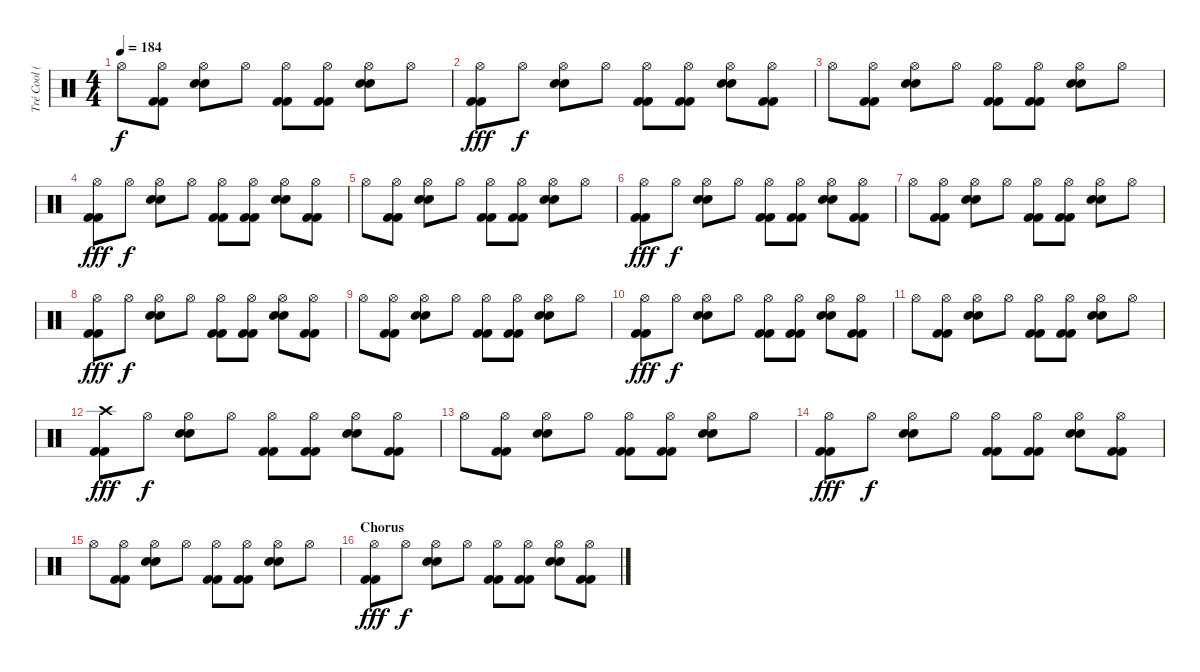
\track ("Tré Cool (Drums)" "Tré Cool (") {instrument percussion}
\staff {score}
\articulation defaults
\ts (4 4)
\tempo 184
\clef neutral
\ks c "Hi-Hat (open)".8{dy f}
("Kick (hit) 2" "Kick (hit) 2" "Hi-Hat (open)").8 ("Electric Snare (hit)" "Electric Snare (hit)" "Hi-Hat (open)").8 "Hi-Hat (open)".8 ("Kick (hit) 2" "Kick (hit) 2" "Hi-Hat (open)").8 ("Kick (hit) 2" "Kick (hit) 2" "Hi-Hat (open)").8 ("Electric Snare (hit)" "Electric Snare (hit)" "Hi-Hat (open)").8 "Hi-Hat (open)".8 |
("Kick (hit) 2" "Kick (hit) 2" "Hi-Hat (open)").8{dy fff} "Hi-Hat (open)".8{dy f} ("Electric Snare (hit)" "Electric Snare (hit)" "Hi-Hat (open)").8 "Hi-Hat (open)".8 ("Kick (hit) 2" "Kick (hit) 2" "Hi-Hat (open)").8 ("Kick (hit) 2" "Kick (hit) 2" "Hi-Hat (open)").8 ("Electric Snare (hit)" "Electric Snare (hit)" "Hi-Hat (open)").8 ("Kick (hit) 2" "Kick (hit) 2" "Hi-Hat (open)").8 |
"Hi-Hat (open)".8 ("Kick (hit) 2" "Kick (hit) 2" "Hi-Hat (open)").8 ("Electric Snare (hit)" "Electric Snare (hit)" "Hi-Hat (open)").8 "Hi-Hat (open)".8 ("Kick (hit) 2" "Kick (hit) 2" "Hi-Hat (open)").8 ("Kick (hit) 2" "Kick (hit) 2" "Hi-Hat (open)").8 ("Electric Snare (hit)" "Electric Snare (hit)" "Hi-Hat (open)").8 "Hi-Hat (open)".8 |
("Kick (hit) 2" "Kick (hit) 2" "Hi-Hat (open)").8{dy fff} "Hi-Hat (open)".8{dy f} ("Electric Snare (hit)" "Electric Snare (hit)" "Hi-Hat (open)").8 "Hi-Hat (open)".8 ("Kick (hit) 2" "Kick (hit) 2" "Hi-Hat (open)").8 ("Kick (hit) 2" "Kick (hit) 2" "Hi-Hat (open)").8 ("Electric Snare (hit)" "Electric Snare (hit)" "Hi-Hat (open)").8 ("Kick (hit) 2" "Kick (hit) 2" "Hi-Hat (open)").8 |
"Hi-Hat (open)".8 ("Kick (hit) 2" "Kick (hit) 2" "Hi-Hat (open)").8 ("Electric Snare (hit)" "Electric Snare (hit)" "Hi-Hat (open)").8 "Hi-Hat (open)".8 ("Kick (hit) 2" "Kick (hit) 2" "Hi-Hat (open)").8 ("Kick (hit) 2" "Kick (hit) 2" "Hi-Hat (open)").8 ("Electric Snare (hit)" "Electric Snare (hit)" "Hi-Hat (open)").8 "Hi-Hat (open)".8 |
("Kick (hit) 2" "Kick (hit) 2" "Hi-Hat (open)").8{dy fff} "Hi-Hat (open)".8{dy f} ("Electric Snare (hit)" "Electric Snare (hit)" "Hi-Hat (open)").8 "Hi-Hat (open)".8 ("Kick (hit) 2" "Kick (hit) 2" "Hi-Hat (open)").8 ("Kick (hit) 2" "Kick (hit) 2" "Hi-Hat (open)").8 ("Electric Snare (hit)" "Electric Snare (hit)" "Hi-Hat (open)").8 ("Kick (hit) 2" "Kick (hit) 2" "Hi-Hat (open)").8 |
"Hi-Hat (open)".8 ("Kick (hit) 2" "Kick (hit) 2" "Hi-Hat (open)").8 ("Electric Snare (hit)" "Electric Snare (hit)" "Hi-Hat (open)").8 "Hi-Hat (open)".8 ("Kick (hit) 2" "Kick (hit) 2" "Hi-Hat (open)").8 ("Kick (hit) 2" "Kick (hit) 2" "Hi-Hat (open)").8 ("Electric Snare (hit)" "Electric Snare (hit)" "Hi-Hat (open)").8 "Hi-Hat (open)".8 |
("Kick (hit) 2" "Kick (hit) 2" "Hi-Hat (open)").8{dy fff} "Hi-Hat (open)".8{dy f} ("Electric Snare (hit)" "Electric Snare (hit)" "Hi-Hat (open)").8 "Hi-Hat (open)".8 ("Kick (hit) 2" "Kick (hit) 2" "Hi-Hat (open)").8 ("Kick (hit) 2" "Kick (hit) 2" "Hi-Hat (open)").8 ("Electric Snare (hit)" "Electric Snare (hit)" "Hi-Hat (open)").8 ("Kick (hit) 2" "Kick (hit) 2" "Hi-Hat (open)").8 |
"Hi-Hat (open)".8 ("Kick (hit) 2" "Kick (hit) 2" "Hi-Hat (open)").8 ("Electric Snare (hit)" "Electric Snare (hit)" "Hi-Hat (open)").8 "Hi-Hat (open)".8 ("Kick (hit) 2" "Kick (hit) 2" "Hi-Hat (open)").8 ("Kick (hit) 2" "Kick (hit) 2" "Hi-Hat (open)").8 ("Electric Snare (hit)" "Electric Snare (hit)" "Hi-Hat (open)").8 "Hi-Hat (open)".8 |
("Kick (hit) 2" "Kick (hit) 2" "Hi-Hat (open)").8{dy fff} "Hi-Hat (open)".8{dy f} ("Electric Snare (hit)" "Electric Snare (hit)" "Hi-Hat (open)").8 "Hi-Hat (open)".8 ("Kick (hit) 2" "Kick (hit) 2" "Hi-Hat (open)").8 ("Kick (hit) 2" "Kick (hit) 2" "Hi-Hat (open)").8 ("Electric Snare (hit)" "Electric Snare (hit)" "Hi-Hat (open)").8 ("Kick (hit) 2" "Kick (hit) 2" "Hi-Hat (open)").8 |
"Hi-Hat (open)".8 ("Kick (hit) 2" "Kick (hit) 2" "Hi-Hat (open)").8 ("Electric Snare (hit)" "Electric Snare (hit)" "Hi-Hat (open)").8 "Hi-Hat (open)".8 ("Kick (hit) 2" "Kick (hit) 2" "Hi-Hat (open)").8 ("Kick (hit) 2" "Kick (hit) 2" "Hi-Hat (open)").8 ("Electric Snare (hit)" "Electric Snare (hit)" "Hi-Hat (open)").8 "Hi-Hat (open)".8 |
("Kick (hit) 2" "Kick (hit) 2" "Crash high (hit)").8{dy fff} "Hi-Hat (open)".8{dy f} ("Electric Snare (hit)" "Electric Snare (hit)" "Hi-Hat (open)").8 "Hi-Hat (open)".8 ("Kick (hit) 2" "Kick (hit) 2" "Hi-Hat (open)").8 ("Kick (hit) 2" "Kick (hit) 2" "Hi-Hat (open)").8 ("Electric Snare (hit)" "Electric Snare (hit)" "Hi-Hat (open)").8 ("Kick (hit) 2" "Kick (hit) 2" "Hi-Hat (open)").8 |
"Hi-Hat (open)".8 ("Kick (hit) 2" "Kick (hit) 2" "Hi-Hat (open)").8 ("Electric Snare (hit)" "Electric Snare (hit)" "Hi-Hat (open)").8 "Hi-Hat (open)".8 ("Kick (hit) 2" "Kick (hit) 2" "Hi-Hat (open)").8 ("Kick (hit) 2" "Kick (hit) 2" "Hi-Hat (open)").8 ("Electric Snare (hit)" "Electric Snare (hit)" "Hi-Hat (open)").8 "Hi-Hat (open)".8 |
("Kick (hit) 2" "Kick (hit) 2" "Hi-Hat (open)").8{dy fff} "Hi-Hat (open)".8{dy f} ("Electric Snare (hit)" "Electric Snare (hit)" "Hi-Hat (open)").8 "Hi-Hat (open)".8 ("Kick (hit) 2" "Kick (hit) 2" "Hi-Hat (open)").8 ("Kick (hit) 2" "Kick (hit) 2" "Hi-Hat (open)").8 ("Electric Snare (hit)" "Electric Snare (hit)" "Hi-Hat (open)").8 ("Kick (hit) 2" "Kick (hit) 2" "Hi-Hat (open)").8 |
"Hi-Hat (open)".8 ("Kick (hit) 2" "Kick (hit) 2" "Hi-Hat (open)").8 ("Electric Snare (hit)" "Electric Snare (hit)" "Hi-Hat (open)").8 "Hi-Hat (open)".8 ("Kick (hit) 2" "Kick (hit) 2" "Hi-Hat (open)").8 ("Kick (hit) 2" "Kick (hit) 2" "Hi-Hat (open)").8 ("Electric Snare (hit)" "Electric Snare (hit)" "Hi-Hat (open)").8 "Hi-Hat (open)".8 |
\section ("" "Chorus")
("Kick (hit) 2" "Kick (hit) 2" "Hi-Hat (open)").8{dy fff} "Hi-Hat (open)".8{dy f} ("Electric Snare (hit)" "Electric Snare (hit)" "Hi-Hat (open)").8 "Hi-Hat (open)".8 ("Kick (hit) 2" "Kick (hit) 2" "Hi-Hat (open)").8 ("Kick (hit) 2" "Kick (hit) 2" "Hi-Hat (open)").8 ("Electric Snare (hit)" "Electric Snare (hit)" "Hi-Hat (open)").8 ("Kick (hit) 2" "Kick (hit) 2" "Hi-Hat (open)").8
